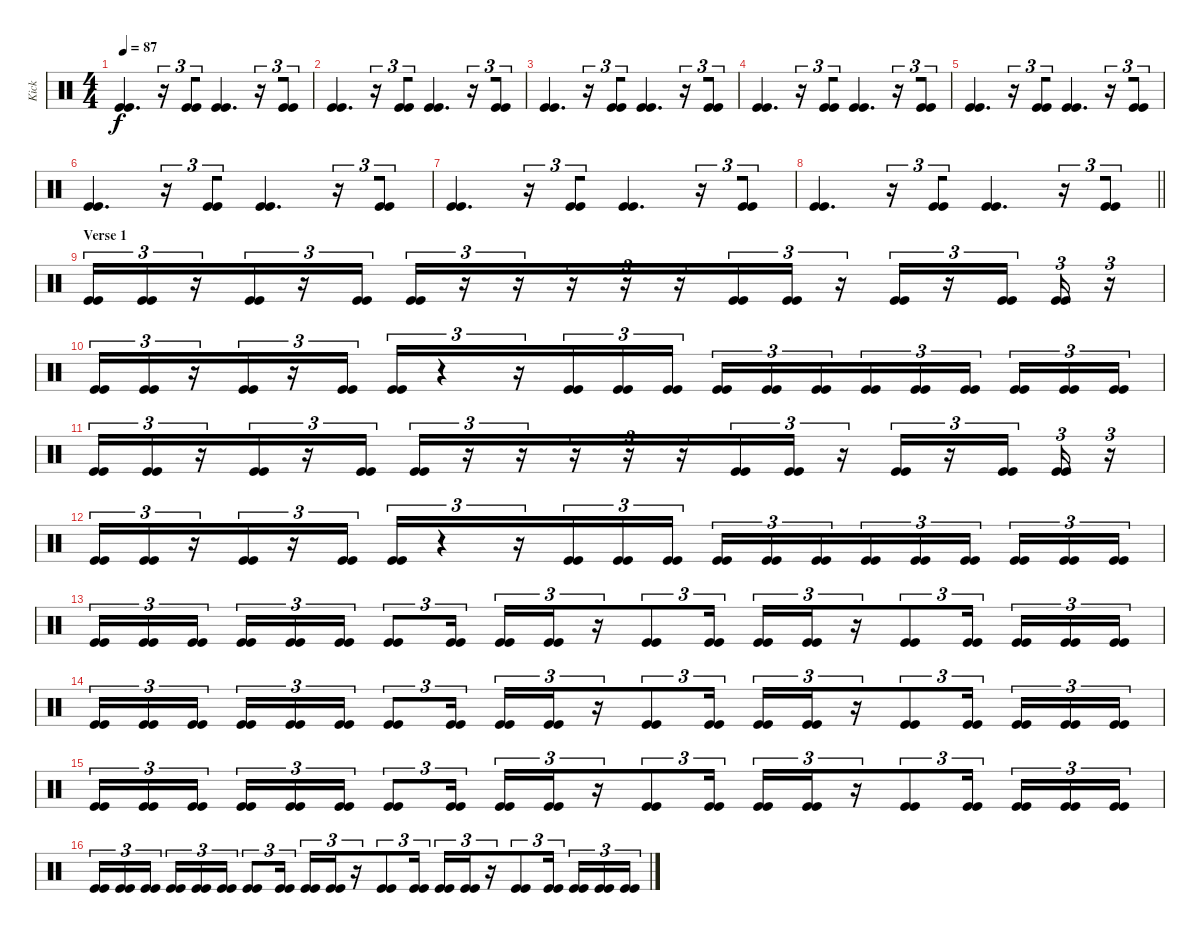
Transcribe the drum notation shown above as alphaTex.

\track ("Kick" "Kick") {instrument percussion bank 158}
\staff {score}
\articulation defaults
\ts (4 4)
\tempo 87
\clef neutral
\ks c
("Kick (hit)" "Kick (hit)").4{d dy f beam merge} r.16{tu (3 2)} ("Kick (hit)" "Kick (hit)").8{tu (3 2) beam merge} ("Kick (hit)" "Kick (hit)").4{d beam merge} r.16{tu (3 2)} ("Kick (hit)" "Kick (hit)").8{tu (3 2)} |
("Kick (hit)" "Kick (hit)").4{d beam merge} r.16{tu (3 2)} ("Kick (hit)" "Kick (hit)").8{tu (3 2) beam merge} ("Kick (hit)" "Kick (hit)").4{d beam merge} r.16{tu (3 2)} ("Kick (hit)" "Kick (hit)").8{tu (3 2)} |
("Kick (hit)" "Kick (hit)").4{d beam merge} r.16{tu (3 2)} ("Kick (hit)" "Kick (hit)").8{tu (3 2) beam merge} ("Kick (hit)" "Kick (hit)").4{d beam merge} r.16{tu (3 2)} ("Kick (hit)" "Kick (hit)").8{tu (3 2)} |
("Kick (hit)" "Kick (hit)").4{d beam merge} r.16{tu (3 2)} ("Kick (hit)" "Kick (hit)").8{tu (3 2) beam merge} ("Kick (hit)" "Kick (hit)").4{d beam merge} r.16{tu (3 2)} ("Kick (hit)" "Kick (hit)").8{tu (3 2)} |
("Kick (hit)" "Kick (hit)").4{d beam merge} r.16{tu (3 2)} ("Kick (hit)" "Kick (hit)").8{tu (3 2) beam merge} ("Kick (hit)" "Kick (hit)").4{d beam merge} r.16{tu (3 2)} ("Kick (hit)" "Kick (hit)").8{tu (3 2)} |
("Kick (hit)" "Kick (hit)").4{d beam merge} r.16{tu (3 2)} ("Kick (hit)" "Kick (hit)").8{tu (3 2) beam merge} ("Kick (hit)" "Kick (hit)").4{d beam merge} r.16{tu (3 2)} ("Kick (hit)" "Kick (hit)").8{tu (3 2)} |
("Kick (hit)" "Kick (hit)").4{d beam merge} r.16{tu (3 2)} ("Kick (hit)" "Kick (hit)").8{tu (3 2) beam merge} ("Kick (hit)" "Kick (hit)").4{d beam merge} r.16{tu (3 2)} ("Kick (hit)" "Kick (hit)").8{tu (3 2)} |
\barLineRight lightlight
("Kick (hit)" "Kick (hit)").4{d beam merge} r.16{tu (3 2)} ("Kick (hit)" "Kick (hit)").8{tu (3 2) beam merge} ("Kick (hit)" "Kick (hit)").4{d beam merge} r.16{tu (3 2)} ("Kick (hit)" "Kick (hit)").8{tu (3 2)} |
\section ("" "Verse 1")
("Kick (hit)" "Kick (hit)").16{tu (3 2)} ("Kick (hit)" "Kick (hit)").16{tu (3 2) beam merge} r.16{tu (3 2) beam merge} ("Kick (hit)" "Kick (hit)").16{tu (3 2)} r.16{tu (3 2) beam merge} ("Kick (hit)" "Kick (hit)").16{tu (3 2)} ("Kick (hit)" "Kick (hit)").16{tu (3 2) beam merge} r.16{tu (3 2)} r.16{tu (3 2) beam merge} r.16{tu (3 2)} r.16{tu (3 2)} r.16{tu (3 2) beam merge} ("Kick (hit)" "Kick (hit)").16{tu (3 2)} ("Kick (hit)" "Kick (hit)").16{tu (3 2)} r.16{tu (3 2) beam merge} ("Kick (hit)" "Kick (hit)").16{tu (3 2)} r.16{tu (3 2)} ("Kick (hit)" "Kick (hit)").16{tu (3 2)} ("Kick (hit)" "Kick (hit)").16{tu (3 2) beam merge} r.16{tu (3 2)} |
("Kick (hit)" "Kick (hit)").16{tu (3 2)} ("Kick (hit)" "Kick (hit)").16{tu (3 2) beam merge} r.16{tu (3 2) beam merge} ("Kick (hit)" "Kick (hit)").16{tu (3 2)} r.16{tu (3 2) beam merge} ("Kick (hit)" "Kick (hit)").16{tu (3 2)} ("Kick (hit)" "Kick (hit)").16{tu (3 2) beam merge} r.4{tu (3 2)} r.16{tu (3 2) beam merge} ("Kick (hit)" "Kick (hit)").16{tu (3 2)} ("Kick (hit)" "Kick (hit)").16{tu (3 2)} ("Kick (hit)" "Kick (hit)").16{tu (3 2) beam splitsecondary} ("Kick (hit)" "Kick (hit)").16{tu (3 2)} ("Kick (hit)" "Kick (hit)").16{tu (3 2)} ("Kick (hit)" "Kick (hit)").16{tu (3 2) beam merge} ("Kick (hit)" "Kick (hit)").16{tu (3 2)} ("Kick (hit)" "Kick (hit)").16{tu (3 2)} ("Kick (hit)" "Kick (hit)").16{tu (3 2) beam splitsecondary} ("Kick (hit)" "Kick (hit)").16{tu (3 2) beam merge} ("Kick (hit)" "Kick (hit)").16{tu (3 2)} ("Kick (hit)" "Kick (hit)").16{tu (3 2)} |
("Kick (hit)" "Kick (hit)").16{tu (3 2)} ("Kick (hit)" "Kick (hit)").16{tu (3 2) beam merge} r.16{tu (3 2) beam merge} ("Kick (hit)" "Kick (hit)").16{tu (3 2)} r.16{tu (3 2) beam merge} ("Kick (hit)" "Kick (hit)").16{tu (3 2)} ("Kick (hit)" "Kick (hit)").16{tu (3 2) beam merge} r.16{tu (3 2)} r.16{tu (3 2) beam merge} r.16{tu (3 2)} r.16{tu (3 2)} r.16{tu (3 2) beam merge} ("Kick (hit)" "Kick (hit)").16{tu (3 2)} ("Kick (hit)" "Kick (hit)").16{tu (3 2)} r.16{tu (3 2) beam merge} ("Kick (hit)" "Kick (hit)").16{tu (3 2)} r.16{tu (3 2)} ("Kick (hit)" "Kick (hit)").16{tu (3 2)} ("Kick (hit)" "Kick (hit)").16{tu (3 2) beam merge} r.16{tu (3 2)} |
("Kick (hit)" "Kick (hit)").16{tu (3 2)} ("Kick (hit)" "Kick (hit)").16{tu (3 2) beam merge} r.16{tu (3 2) beam merge} ("Kick (hit)" "Kick (hit)").16{tu (3 2)} r.16{tu (3 2) beam merge} ("Kick (hit)" "Kick (hit)").16{tu (3 2)} ("Kick (hit)" "Kick (hit)").16{tu (3 2) beam merge} r.4{tu (3 2)} r.16{tu (3 2) beam merge} ("Kick (hit)" "Kick (hit)").16{tu (3 2)} ("Kick (hit)" "Kick (hit)").16{tu (3 2)} ("Kick (hit)" "Kick (hit)").16{tu (3 2) beam splitsecondary} ("Kick (hit)" "Kick (hit)").16{tu (3 2)} ("Kick (hit)" "Kick (hit)").16{tu (3 2)} ("Kick (hit)" "Kick (hit)").16{tu (3 2) beam merge} ("Kick (hit)" "Kick (hit)").16{tu (3 2)} ("Kick (hit)" "Kick (hit)").16{tu (3 2)} ("Kick (hit)" "Kick (hit)").16{tu (3 2) beam splitsecondary} ("Kick (hit)" "Kick (hit)").16{tu (3 2) beam merge} ("Kick (hit)" "Kick (hit)").16{tu (3 2)} ("Kick (hit)" "Kick (hit)").16{tu (3 2)} |
("Kick (hit)" "Kick (hit)").16{tu (3 2)} ("Kick (hit)" "Kick (hit)").16{tu (3 2) beam merge} ("Kick (hit)" "Kick (hit)").16{tu (3 2) beam splitsecondary} ("Kick (hit)" "Kick (hit)").16{tu (3 2)} ("Kick (hit)" "Kick (hit)").16{tu (3 2)} ("Kick (hit)" "Kick (hit)").16{tu (3 2)} ("Kick (hit)" "Kick (hit)").8{tu (3 2) beam merge} ("Kick (hit)" "Kick (hit)").16{tu (3 2) beam splitsecondary} ("Kick (hit)" "Kick (hit)").16{tu (3 2) beam merge} ("Kick (hit)" "Kick (hit)").16{tu (3 2) beam merge} r.16{tu (3 2) beam merge} ("Kick (hit)" "Kick (hit)").8{tu (3 2) beam merge} ("Kick (hit)" "Kick (hit)").16{tu (3 2) beam splitsecondary} ("Kick (hit)" "Kick (hit)").16{tu (3 2) beam merge} ("Kick (hit)" "Kick (hit)").16{tu (3 2) beam merge} r.16{tu (3 2)} ("Kick (hit)" "Kick (hit)").8{tu (3 2) beam merge} ("Kick (hit)" "Kick (hit)").16{tu (3 2) beam splitsecondary} ("Kick (hit)" "Kick (hit)").16{tu (3 2) beam merge} ("Kick (hit)" "Kick (hit)").16{tu (3 2) beam merge} ("Kick (hit)" "Kick (hit)").16{tu (3 2)} |
("Kick (hit)" "Kick (hit)").16{tu (3 2)} ("Kick (hit)" "Kick (hit)").16{tu (3 2) beam merge} ("Kick (hit)" "Kick (hit)").16{tu (3 2) beam splitsecondary} ("Kick (hit)" "Kick (hit)").16{tu (3 2)} ("Kick (hit)" "Kick (hit)").16{tu (3 2)} ("Kick (hit)" "Kick (hit)").16{tu (3 2)} ("Kick (hit)" "Kick (hit)").8{tu (3 2) beam merge} ("Kick (hit)" "Kick (hit)").16{tu (3 2) beam splitsecondary} ("Kick (hit)" "Kick (hit)").16{tu (3 2) beam merge} ("Kick (hit)" "Kick (hit)").16{tu (3 2) beam merge} r.16{tu (3 2) beam merge} ("Kick (hit)" "Kick (hit)").8{tu (3 2) beam merge} ("Kick (hit)" "Kick (hit)").16{tu (3 2) beam splitsecondary} ("Kick (hit)" "Kick (hit)").16{tu (3 2) beam merge} ("Kick (hit)" "Kick (hit)").16{tu (3 2) beam merge} r.16{tu (3 2)} ("Kick (hit)" "Kick (hit)").8{tu (3 2) beam merge} ("Kick (hit)" "Kick (hit)").16{tu (3 2) beam splitsecondary} ("Kick (hit)" "Kick (hit)").16{tu (3 2) beam merge} ("Kick (hit)" "Kick (hit)").16{tu (3 2) beam merge} ("Kick (hit)" "Kick (hit)").16{tu (3 2)} |
("Kick (hit)" "Kick (hit)").16{tu (3 2)} ("Kick (hit)" "Kick (hit)").16{tu (3 2) beam merge} ("Kick (hit)" "Kick (hit)").16{tu (3 2) beam splitsecondary} ("Kick (hit)" "Kick (hit)").16{tu (3 2)} ("Kick (hit)" "Kick (hit)").16{tu (3 2)} ("Kick (hit)" "Kick (hit)").16{tu (3 2)} ("Kick (hit)" "Kick (hit)").8{tu (3 2) beam merge} ("Kick (hit)" "Kick (hit)").16{tu (3 2) beam splitsecondary} ("Kick (hit)" "Kick (hit)").16{tu (3 2) beam merge} ("Kick (hit)" "Kick (hit)").16{tu (3 2) beam merge} r.16{tu (3 2) beam merge} ("Kick (hit)" "Kick (hit)").8{tu (3 2) beam merge} ("Kick (hit)" "Kick (hit)").16{tu (3 2) beam splitsecondary} ("Kick (hit)" "Kick (hit)").16{tu (3 2) beam merge} ("Kick (hit)" "Kick (hit)").16{tu (3 2) beam merge} r.16{tu (3 2)} ("Kick (hit)" "Kick (hit)").8{tu (3 2) beam merge} ("Kick (hit)" "Kick (hit)").16{tu (3 2) beam splitsecondary} ("Kick (hit)" "Kick (hit)").16{tu (3 2) beam merge} ("Kick (hit)" "Kick (hit)").16{tu (3 2) beam merge} ("Kick (hit)" "Kick (hit)").16{tu (3 2)} |
("Kick (hit)" "Kick (hit)").16{tu (3 2)} ("Kick (hit)" "Kick (hit)").16{tu (3 2) beam merge} ("Kick (hit)" "Kick (hit)").16{tu (3 2) beam splitsecondary} ("Kick (hit)" "Kick (hit)").16{tu (3 2)} ("Kick (hit)" "Kick (hit)").16{tu (3 2)} ("Kick (hit)" "Kick (hit)").16{tu (3 2)} ("Kick (hit)" "Kick (hit)").8{tu (3 2) beam merge} ("Kick (hit)" "Kick (hit)").16{tu (3 2) beam splitsecondary} ("Kick (hit)" "Kick (hit)").16{tu (3 2) beam merge} ("Kick (hit)" "Kick (hit)").16{tu (3 2) beam merge} r.16{tu (3 2) beam merge} ("Kick (hit)" "Kick (hit)").8{tu (3 2) beam merge} ("Kick (hit)" "Kick (hit)").16{tu (3 2) beam splitsecondary} ("Kick (hit)" "Kick (hit)").16{tu (3 2) beam merge} ("Kick (hit)" "Kick (hit)").16{tu (3 2) beam merge} r.16{tu (3 2)} ("Kick (hit)" "Kick (hit)").8{tu (3 2) beam merge} ("Kick (hit)" "Kick (hit)").16{tu (3 2) beam splitsecondary} ("Kick (hit)" "Kick (hit)").16{tu (3 2) beam merge} ("Kick (hit)" "Kick (hit)").16{tu (3 2) beam merge} ("Kick (hit)" "Kick (hit)").16{tu (3 2)}
